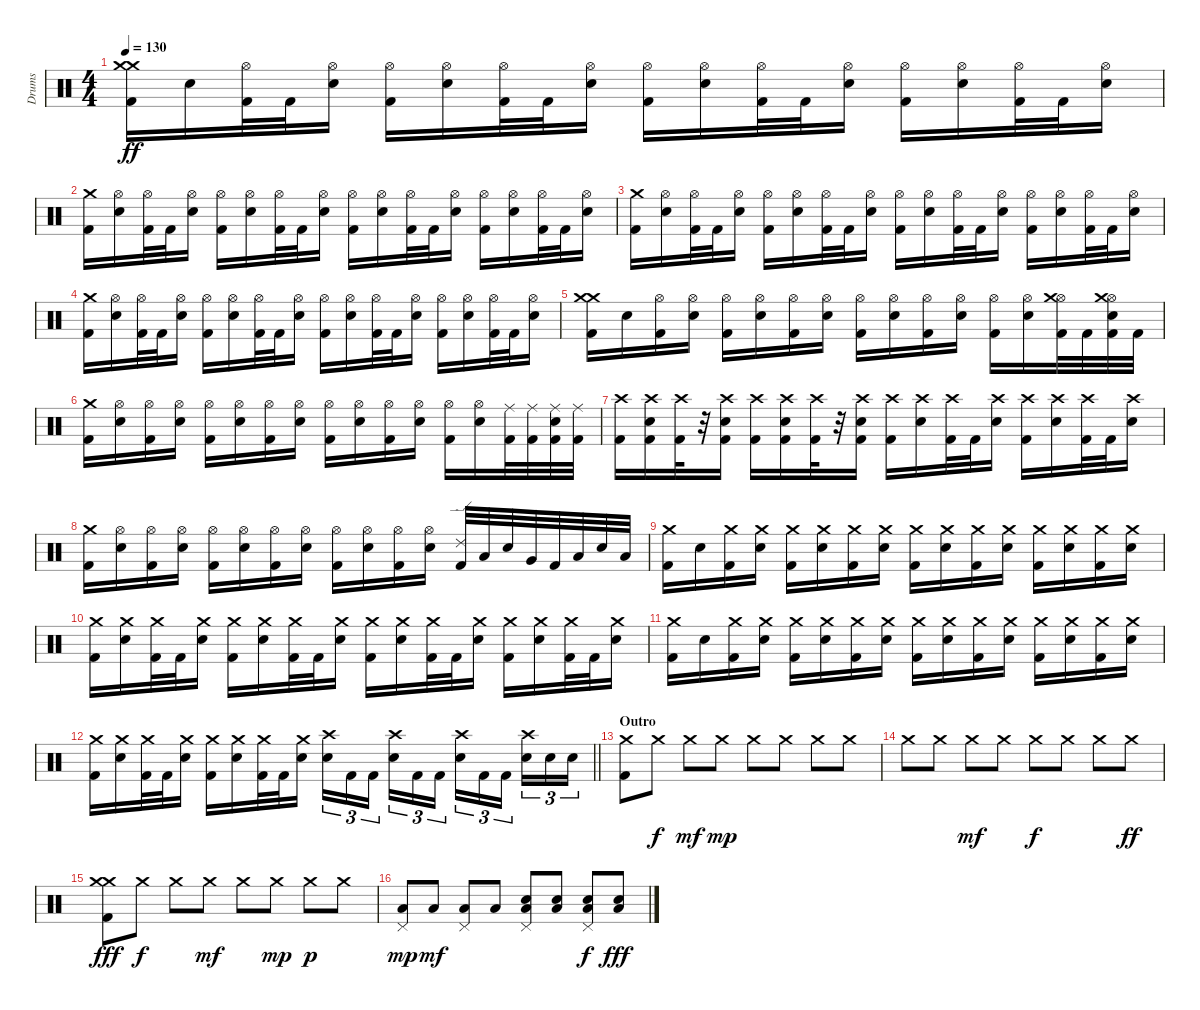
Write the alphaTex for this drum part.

\track ("Drums" "Drums") {instrument percussion}
\staff {score}
\articulation defaults
\ts (4 4)
\tempo 130
\clef neutral
\ks c
("Crash medium (hit)" "Crash medium (hit)" "Kick (hit) 2").16{dy ff} "Snare (hit) 2".16 ("Hi-Hat (open)" "Kick (hit) 2").32 "Kick (hit) 2".32 ("Hi-Hat (open)" "Snare (hit) 2").16 ("Hi-Hat (open)" "Kick (hit) 2").16 ("Hi-Hat (open)" "Snare (hit) 2").16 ("Hi-Hat (open)" "Kick (hit) 2").32 "Kick (hit) 2".32 ("Hi-Hat (open)" "Snare (hit) 2").16 ("Hi-Hat (open)" "Kick (hit) 2").16 ("Hi-Hat (open)" "Snare (hit) 2").16 ("Hi-Hat (open)" "Kick (hit) 2").32 "Kick (hit) 2".32 ("Hi-Hat (open)" "Snare (hit) 2").16 ("Hi-Hat (open)" "Kick (hit) 2").16 ("Hi-Hat (open)" "Snare (hit) 2").16 ("Hi-Hat (open)" "Kick (hit) 2").32 "Kick (hit) 2".32 ("Hi-Hat (open)" "Snare (hit) 2").16 |
("Crash medium (hit)" "Kick (hit) 2").16 ("Hi-Hat (open)" "Snare (hit) 2").16 ("Hi-Hat (open)" "Kick (hit) 2").32 "Kick (hit) 2".32 ("Hi-Hat (open)" "Snare (hit) 2").16 ("Hi-Hat (open)" "Kick (hit) 2").16 ("Hi-Hat (open)" "Snare (hit) 2").16 ("Hi-Hat (open)" "Kick (hit) 2").32 "Kick (hit) 2".32 ("Hi-Hat (open)" "Snare (hit) 2").16 ("Hi-Hat (open)" "Kick (hit) 2").16 ("Hi-Hat (open)" "Snare (hit) 2").16 ("Hi-Hat (open)" "Kick (hit) 2").32 "Kick (hit) 2".32 ("Hi-Hat (open)" "Snare (hit) 2").16 ("Hi-Hat (open)" "Kick (hit) 2").16 ("Hi-Hat (open)" "Snare (hit) 2").16 ("Hi-Hat (open)" "Kick (hit) 2").32 "Kick (hit) 2".32 ("Hi-Hat (open)" "Snare (hit) 2").16 |
("Crash medium (hit)" "Kick (hit) 2").16 ("Hi-Hat (open)" "Snare (hit) 2").16 ("Hi-Hat (open)" "Kick (hit) 2").32 "Kick (hit) 2".32 ("Hi-Hat (open)" "Snare (hit) 2").16 ("Hi-Hat (open)" "Kick (hit) 2").16 ("Hi-Hat (open)" "Snare (hit) 2").16 ("Hi-Hat (open)" "Kick (hit) 2").32 "Kick (hit) 2".32 ("Hi-Hat (open)" "Snare (hit) 2").16 ("Hi-Hat (open)" "Kick (hit) 2").16 ("Hi-Hat (open)" "Snare (hit) 2").16 ("Hi-Hat (open)" "Kick (hit) 2").32 "Kick (hit) 2".32 ("Hi-Hat (open)" "Snare (hit) 2").16 ("Hi-Hat (open)" "Kick (hit) 2").16 ("Hi-Hat (open)" "Snare (hit) 2").16 ("Hi-Hat (open)" "Kick (hit) 2").32 "Kick (hit) 2".32 ("Hi-Hat (open)" "Snare (hit) 2").16 |
("Crash medium (hit)" "Kick (hit) 2").16 ("Hi-Hat (open)" "Snare (hit) 2").16 ("Hi-Hat (open)" "Kick (hit) 2").32 "Kick (hit) 2".32 ("Hi-Hat (open)" "Snare (hit) 2").16 ("Hi-Hat (open)" "Kick (hit) 2").16 ("Hi-Hat (open)" "Snare (hit) 2").16 ("Hi-Hat (open)" "Kick (hit) 2").32 "Kick (hit) 2".32 ("Hi-Hat (open)" "Snare (hit) 2").16 ("Hi-Hat (open)" "Kick (hit) 2").16 ("Hi-Hat (open)" "Snare (hit) 2").16 ("Hi-Hat (open)" "Kick (hit) 2").32 "Kick (hit) 2".32 ("Hi-Hat (open)" "Snare (hit) 2").16 ("Hi-Hat (open)" "Kick (hit) 2").16 ("Hi-Hat (open)" "Snare (hit) 2").16 ("Hi-Hat (open)" "Kick (hit) 2").32 "Kick (hit) 2".32 ("Hi-Hat (open)" "Snare (hit) 2").16 |
("Crash medium (hit)" "Crash medium (hit)" "Kick (hit) 2").16 "Snare (hit) 2".16 ("Hi-Hat (open)" "Kick (hit) 2").16 ("Hi-Hat (open)" "Snare (hit) 2").16 ("Hi-Hat (open)" "Kick (hit) 2").16 ("Hi-Hat (open)" "Snare (hit) 2").16 ("Hi-Hat (open)" "Kick (hit) 2").16 ("Hi-Hat (open)" "Snare (hit) 2").16 ("Hi-Hat (open)" "Kick (hit) 2").16 ("Hi-Hat (open)" "Snare (hit) 2").16 ("Hi-Hat (open)" "Kick (hit) 2").16 ("Hi-Hat (open)" "Snare (hit) 2").16 ("Hi-Hat (open)" "Kick (hit) 2").16 ("Hi-Hat (open)" "Snare (hit) 2").16 ("Hi-Hat (open)" "Crash medium (hit)" "Kick (hit) 2").32 "Kick (hit) 2".32 ("Hi-Hat (open)" "Crash medium (hit)" "Kick (hit) 2" "Snare (hit) 2").32 "Kick (hit) 2".32 |
("Crash medium (hit)" "Kick (hit) 2").16 ("Hi-Hat (open)" "Snare (hit) 2").16 ("Hi-Hat (open)" "Kick (hit) 2").16 ("Hi-Hat (open)" "Snare (hit) 2").16 ("Hi-Hat (open)" "Kick (hit) 2").16 ("Hi-Hat (open)" "Snare (hit) 2").16 ("Hi-Hat (open)" "Kick (hit) 2").16 ("Hi-Hat (open)" "Snare (hit) 2").16 ("Hi-Hat (open)" "Kick (hit) 2").16 ("Hi-Hat (open)" "Snare (hit) 2").16 ("Hi-Hat (open)" "Kick (hit) 2").16 ("Hi-Hat (open)" "Snare (hit) 2").16 ("Hi-Hat (open)" "Kick (hit) 2").16 ("Hi-Hat (open)" "Snare (hit) 2").16 ("Kick (hit) 2" "Ride (middle)").32 ("Kick (hit) 2" "Ride (middle)").32 ("Kick (hit) 2" "Snare (hit) 2" "Ride (middle)").32 ("Kick (hit) 2" "Ride (middle)").32 |
("Crash high (hit)" "Kick (hit) 2").16 ("Crash high (hit)" "Kick (hit) 2" "Snare (hit) 2").16 ("Crash high (hit)" "Kick (hit) 2").32 r.32 ("Crash high (hit)" "Kick (hit) 2" "Snare (hit) 2").16 ("Crash high (hit)" "Kick (hit) 2").16 ("Crash high (hit)" "Kick (hit) 2" "Snare (hit) 2").16 ("Crash high (hit)" "Kick (hit) 2").32 r.32 ("Crash high (hit)" "Kick (hit) 2" "Snare (hit) 2").16 ("Crash high (hit)" "Kick (hit) 2").16 ("Crash high (hit)" "Snare (hit) 2").16 ("Crash high (hit)" "Kick (hit) 2").32 "Kick (hit) 2".32 ("Crash high (hit)" "Snare (hit) 2").16 ("Crash high (hit)" "Kick (hit) 2").16 ("Crash high (hit)" "Snare (hit) 2").16 ("Crash high (hit)" "Kick (hit) 2").32 "Kick (hit) 2".32 ("Crash high (hit)" "Snare (hit) 2").16 |
("Crash medium (hit)" "Kick (hit) 2").16 ("Hi-Hat (open)" "Snare (hit) 2").16 ("Hi-Hat (open)" "Kick (hit) 2").16 ("Hi-Hat (open)" "Snare (hit) 2").16 ("Hi-Hat (open)" "Kick (hit) 2").16 ("Hi-Hat (open)" "Snare (hit) 2").16 ("Hi-Hat (open)" "Kick (hit) 2").16 ("Hi-Hat (open)" "Snare (hit) 2").16 ("Hi-Hat (open)" "Kick (hit) 2").16 ("Hi-Hat (open)" "Snare (hit) 2").16 ("Hi-Hat (open)" "Kick (hit) 2").16 ("Hi-Hat (open)" "Snare (hit) 2").16 ("Kick (hit) 2" "Ride (edge) 2").32 "Low Tom (hit)".32 "Snare (hit) 2".32 "Very Low Tom (hit)".32 "Kick (hit) 2".32 "Low Tom (hit)".32 "Snare (hit) 2".32 "Low Floor Tom (hit)".32 |
("Crash medium (hit)" "Kick (hit) 2").16 "Snare (hit) 2".16 ("Crash medium (hit)" "Kick (hit) 2").16 ("Crash medium (hit)" "Snare (hit) 2").16 ("Crash medium (hit)" "Kick (hit) 2").16 ("Crash medium (hit)" "Snare (hit) 2").16 ("Crash medium (hit)" "Kick (hit) 2").16 ("Crash medium (hit)" "Snare (hit) 2").16 ("Crash medium (hit)" "Kick (hit) 2").16 ("Crash medium (hit)" "Snare (hit) 2").16 ("Crash medium (hit)" "Kick (hit) 2").16 ("Crash medium (hit)" "Snare (hit) 2").16 ("Crash medium (hit)" "Kick (hit) 2").16 ("Crash medium (hit)" "Snare (hit) 2").16 ("Crash medium (hit)" "Kick (hit) 2").16 ("Crash medium (hit)" "Snare (hit) 2").16 |
("Crash medium (hit)" "Kick (hit) 2").16 ("Crash medium (hit)" "Snare (hit) 2").16 ("Crash medium (hit)" "Kick (hit) 2").32 "Kick (hit) 2".32 ("Crash medium (hit)" "Snare (hit) 2").16 ("Crash medium (hit)" "Kick (hit) 2").16 ("Crash medium (hit)" "Snare (hit) 2").16 ("Crash medium (hit)" "Kick (hit) 2").32 "Kick (hit) 2".32 ("Crash medium (hit)" "Snare (hit) 2").16 ("Crash medium (hit)" "Kick (hit) 2").16 ("Crash medium (hit)" "Snare (hit) 2").16 ("Crash medium (hit)" "Kick (hit) 2").32 "Kick (hit) 2".32 ("Crash medium (hit)" "Snare (hit) 2").16 ("Crash medium (hit)" "Kick (hit) 2").16 ("Crash medium (hit)" "Snare (hit) 2").16 ("Crash medium (hit)" "Kick (hit) 2").32 "Kick (hit) 2".32 ("Crash medium (hit)" "Snare (hit) 2").16 |
("Crash medium (hit)" "Kick (hit) 2").16 "Snare (hit) 2".16 ("Crash medium (hit)" "Kick (hit) 2").16 ("Crash medium (hit)" "Snare (hit) 2").16 ("Crash medium (hit)" "Kick (hit) 2").16 ("Crash medium (hit)" "Snare (hit) 2").16 ("Crash medium (hit)" "Kick (hit) 2").16 ("Crash medium (hit)" "Snare (hit) 2").16 ("Crash medium (hit)" "Kick (hit) 2").16 ("Crash medium (hit)" "Snare (hit) 2").16 ("Crash medium (hit)" "Kick (hit) 2").16 ("Crash medium (hit)" "Snare (hit) 2").16 ("Crash medium (hit)" "Kick (hit) 2").16 ("Crash medium (hit)" "Snare (hit) 2").16 ("Crash medium (hit)" "Kick (hit) 2").16 ("Crash medium (hit)" "Snare (hit) 2").16 |
\barLineRight lightlight
("Crash medium (hit)" "Kick (hit) 2").16 ("Crash medium (hit)" "Snare (hit) 2").16 ("Crash medium (hit)" "Kick (hit) 2").32 "Kick (hit) 2".32 ("Crash medium (hit)" "Snare (hit) 2").16 ("Crash medium (hit)" "Kick (hit) 2").16 ("Crash medium (hit)" "Snare (hit) 2").16 ("Crash medium (hit)" "Kick (hit) 2").32 "Kick (hit) 2".32 ("Crash medium (hit)" "Snare (hit) 2").16 ("Crash high (hit)" "Snare (hit) 2").16{tu (3 2)} "Kick (hit) 2".16{tu (3 2)} "Kick (hit) 2".16{tu (3 2) beam splitsecondary} ("Crash high (hit)" "Snare (hit) 2").16{tu (3 2)} "Kick (hit) 2".16{tu (3 2)} "Kick (hit) 2".16{tu (3 2)} ("Crash high (hit)" "Snare (hit) 2").16{tu (3 2)} "Kick (hit) 2".16{tu (3 2)} "Kick (hit) 2".16{tu (3 2) beam splitsecondary} ("Crash high (hit)" "Snare (hit) 2").16{tu (3 2)} "Snare (hit) 2".16{tu (3 2)} "Snare (hit) 2".16{tu (3 2)} |
\section ("" "Outro")
("Crash medium (hit)" "Kick (hit) 2").8 "Crash medium (hit)".8{dy f} "Crash medium (hit)".8{dy mf} "Crash medium (hit)".8{dy mp} "Crash medium (hit)".8 "Crash medium (hit)".8 "Crash medium (hit)".8 "Crash medium (hit)".8 |
"Crash medium (hit)".8 "Crash medium (hit)".8 "Crash medium (hit)".8{dy mf} "Crash medium (hit)".8 "Crash medium (hit)".8{dy f} "Crash medium (hit)".8 "Crash medium (hit)".8 "Crash medium (hit)".8{dy ff} |
("Crash medium (hit)" "Crash medium (hit)" "Kick (hit) 2").8{dy fff} "Crash medium (hit)".8{dy f} "Crash medium (hit)".8 "Crash medium (hit)".8{dy mf} "Crash medium (hit)".8 "Crash medium (hit)".8{dy mp} "Crash medium (hit)".8{dy p} "Crash medium (hit)".8 |
("Pedal Hi-Hat (hit)" "Low Tom (hit)").8{dy mp} "Low Tom (hit)".8{dy mf} ("Pedal Hi-Hat (hit)" "Low Tom (hit)").8 "Low Tom (hit)".8 ("Pedal Hi-Hat (hit)" "Snare (hit) 2" "Low Tom (hit)").8 ("Snare (hit) 2" "Low Tom (hit)").8 ("Pedal Hi-Hat (hit)" "Snare (hit) 2" "Low Tom (hit)").8{dy f} ("Snare (hit) 2" "Low Tom (hit)").8{dy fff}
